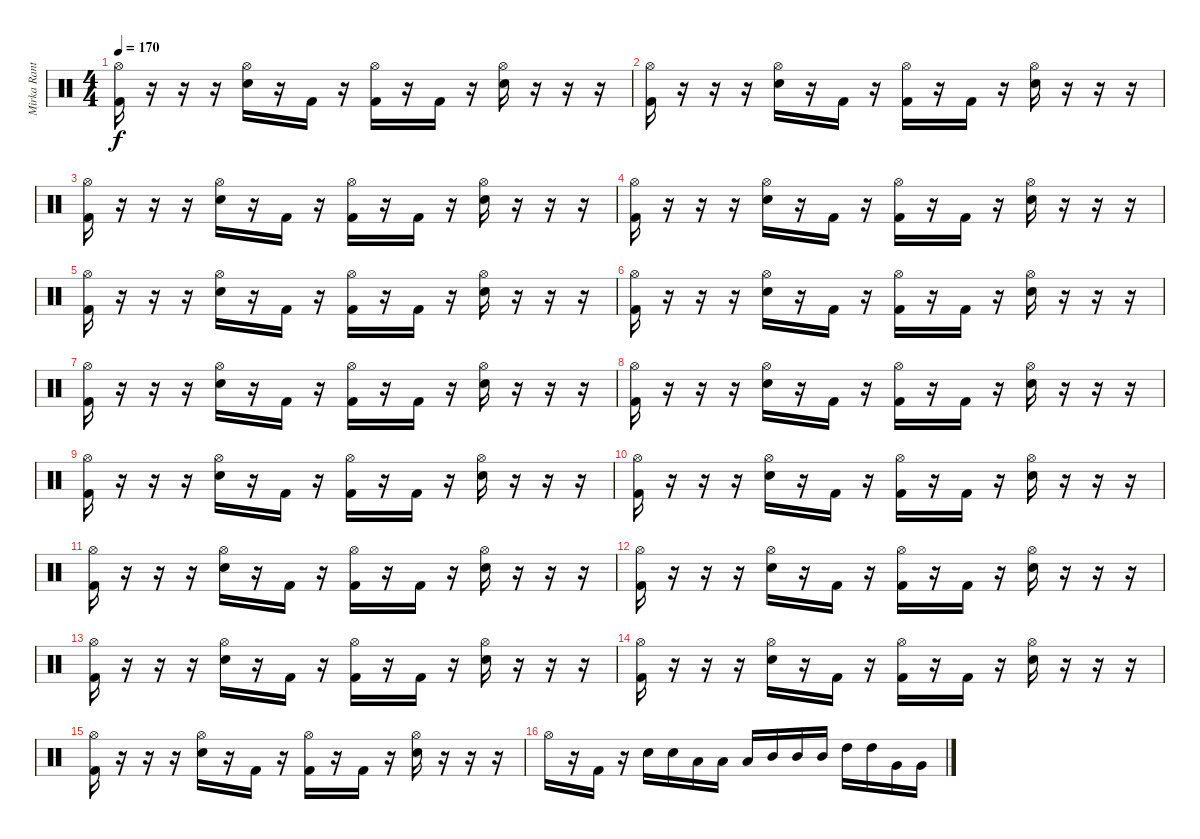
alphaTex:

\track ("Mirka Rantanen" "Mirka Rant") {instrument percussion}
\staff {score}
\articulation defaults
\ts (4 4)
\tempo 170
\clef neutral
\ks c
("Hi-Hat (open)" "Kick (hit) 2").16{dy f} r.16 r.16 r.16 ("Hi-Hat (open)" "Snare (hit) 2").16 r.16 "Kick (hit) 2".16 r.16 ("Hi-Hat (open)" "Kick (hit) 2").16 r.16 "Kick (hit) 2".16 r.16 ("Hi-Hat (open)" "Snare (hit) 2").16 r.16 r.16 r.16 |
("Hi-Hat (open)" "Kick (hit) 2").16 r.16 r.16 r.16 ("Hi-Hat (open)" "Snare (hit) 2").16 r.16 "Kick (hit) 2".16 r.16 ("Hi-Hat (open)" "Kick (hit) 2").16 r.16 "Kick (hit) 2".16 r.16 ("Hi-Hat (open)" "Snare (hit) 2").16 r.16 r.16 r.16 |
("Hi-Hat (open)" "Kick (hit) 2").16 r.16 r.16 r.16 ("Hi-Hat (open)" "Snare (hit) 2").16 r.16 "Kick (hit) 2".16 r.16 ("Hi-Hat (open)" "Kick (hit) 2").16 r.16 "Kick (hit) 2".16 r.16 ("Hi-Hat (open)" "Snare (hit) 2").16 r.16 r.16 r.16 |
("Hi-Hat (open)" "Kick (hit) 2").16 r.16 r.16 r.16 ("Hi-Hat (open)" "Snare (hit) 2").16 r.16 "Kick (hit) 2".16 r.16 ("Hi-Hat (open)" "Kick (hit) 2").16 r.16 "Kick (hit) 2".16 r.16 ("Hi-Hat (open)" "Snare (hit) 2").16 r.16 r.16 r.16 |
("Hi-Hat (open)" "Kick (hit) 2").16 r.16 r.16 r.16 ("Hi-Hat (open)" "Snare (hit) 2").16 r.16 "Kick (hit) 2".16 r.16 ("Hi-Hat (open)" "Kick (hit) 2").16 r.16 "Kick (hit) 2".16 r.16 ("Hi-Hat (open)" "Snare (hit) 2").16 r.16 r.16 r.16 |
("Hi-Hat (open)" "Kick (hit) 2").16 r.16 r.16 r.16 ("Hi-Hat (open)" "Snare (hit) 2").16 r.16 "Kick (hit) 2".16 r.16 ("Hi-Hat (open)" "Kick (hit) 2").16 r.16 "Kick (hit) 2".16 r.16 ("Hi-Hat (open)" "Snare (hit) 2").16 r.16 r.16 r.16 |
("Hi-Hat (open)" "Kick (hit) 2").16 r.16 r.16 r.16 ("Hi-Hat (open)" "Snare (hit) 2").16 r.16 "Kick (hit) 2".16 r.16 ("Hi-Hat (open)" "Kick (hit) 2").16 r.16 "Kick (hit) 2".16 r.16 ("Hi-Hat (open)" "Snare (hit) 2").16 r.16 r.16 r.16 |
("Hi-Hat (open)" "Kick (hit) 2").16 r.16 r.16 r.16 ("Hi-Hat (open)" "Snare (hit) 2").16 r.16 "Kick (hit) 2".16 r.16 ("Hi-Hat (open)" "Kick (hit) 2").16 r.16 "Kick (hit) 2".16 r.16 ("Hi-Hat (open)" "Snare (hit) 2").16 r.16 r.16 r.16 |
("Hi-Hat (open)" "Kick (hit) 2").16 r.16 r.16 r.16 ("Hi-Hat (open)" "Snare (hit) 2").16 r.16 "Kick (hit) 2".16 r.16 ("Hi-Hat (open)" "Kick (hit) 2").16 r.16 "Kick (hit) 2".16 r.16 ("Hi-Hat (open)" "Snare (hit) 2").16 r.16 r.16 r.16 |
("Hi-Hat (open)" "Kick (hit) 2").16 r.16 r.16 r.16 ("Hi-Hat (open)" "Snare (hit) 2").16 r.16 "Kick (hit) 2".16 r.16 ("Hi-Hat (open)" "Kick (hit) 2").16 r.16 "Kick (hit) 2".16 r.16 ("Hi-Hat (open)" "Snare (hit) 2").16 r.16 r.16 r.16 |
("Hi-Hat (open)" "Kick (hit) 2").16 r.16 r.16 r.16 ("Hi-Hat (open)" "Snare (hit) 2").16 r.16 "Kick (hit) 2".16 r.16 ("Hi-Hat (open)" "Kick (hit) 2").16 r.16 "Kick (hit) 2".16 r.16 ("Hi-Hat (open)" "Snare (hit) 2").16 r.16 r.16 r.16 |
("Hi-Hat (open)" "Kick (hit) 2").16 r.16 r.16 r.16 ("Hi-Hat (open)" "Snare (hit) 2").16 r.16 "Kick (hit) 2".16 r.16 ("Hi-Hat (open)" "Kick (hit) 2").16 r.16 "Kick (hit) 2".16 r.16 ("Hi-Hat (open)" "Snare (hit) 2").16 r.16 r.16 r.16 |
("Hi-Hat (open)" "Kick (hit) 2").16 r.16 r.16 r.16 ("Hi-Hat (open)" "Snare (hit) 2").16 r.16 "Kick (hit) 2".16 r.16 ("Hi-Hat (open)" "Kick (hit) 2").16 r.16 "Kick (hit) 2".16 r.16 ("Hi-Hat (open)" "Snare (hit) 2").16 r.16 r.16 r.16 |
("Hi-Hat (open)" "Kick (hit) 2").16 r.16 r.16 r.16 ("Hi-Hat (open)" "Snare (hit) 2").16 r.16 "Kick (hit) 2".16 r.16 ("Hi-Hat (open)" "Kick (hit) 2").16 r.16 "Kick (hit) 2".16 r.16 ("Hi-Hat (open)" "Snare (hit) 2").16 r.16 r.16 r.16 |
("Hi-Hat (open)" "Kick (hit) 2").16 r.16 r.16 r.16 ("Hi-Hat (open)" "Snare (hit) 2").16 r.16 "Kick (hit) 2".16 r.16 ("Hi-Hat (open)" "Kick (hit) 2").16 r.16 "Kick (hit) 2".16 r.16 ("Hi-Hat (open)" "Snare (hit) 2").16 r.16 r.16 r.16 |
"Hi-Hat (open)".16 r.16 "Kick (hit) 2".16 r.16 "Snare (hit) 2".16 "Snare (hit) 2".16 "Low Tom (hit)".16 "Low Tom (hit)".16 "Low Tom (hit)".16 "Mid Tom (hit)".16 "Mid Tom (hit)".16 "Mid Tom (hit)".16 "High Tom (hit)".16 "High Tom (hit)".16 "Very Low Tom (hit)".16 "Very Low Tom (hit)".16
